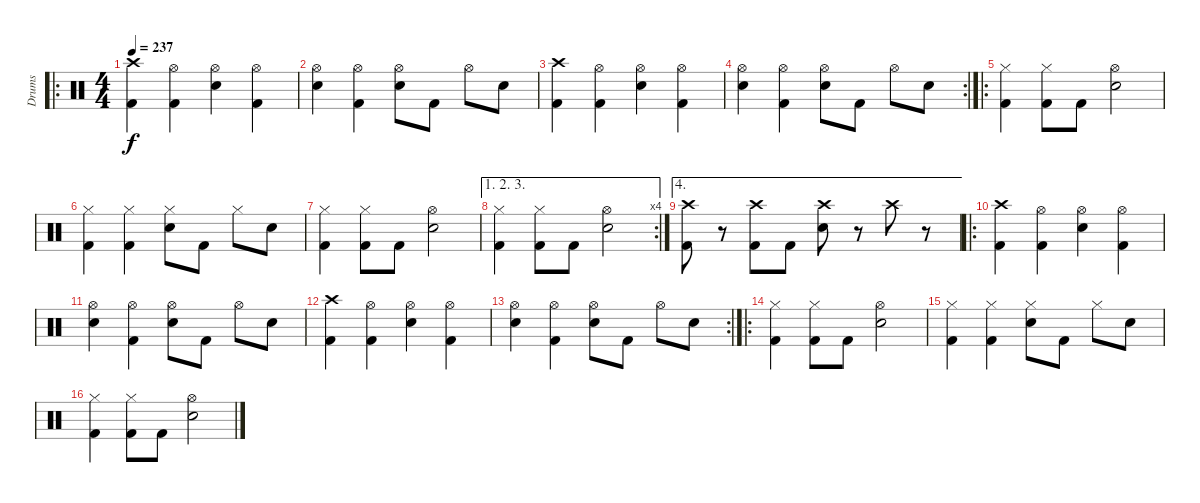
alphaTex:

\track ("Drums" "Drums") {instrument percussion}
\staff {score}
\articulation defaults
\ro
\ts (4 4)
\tempo 237
\clef neutral
\ks c
("Crash high (hit)" "Kick (hit) 2").4{dy f} ("Hi-Hat (open)" "Kick (hit) 2").4 ("Hi-Hat (open)" "Snare (hit) 2").4 ("Hi-Hat (open)" "Kick (hit) 2").4 |
("Hi-Hat (open)" "Snare (hit) 2").4 ("Hi-Hat (open)" "Kick (hit) 2").4 ("Hi-Hat (open)" "Snare (hit) 2").8 "Kick (hit) 2".8 "Hi-Hat (open)".8 "Snare (hit) 2".8 |
("Crash high (hit)" "Kick (hit) 2").4 ("Hi-Hat (open)" "Kick (hit) 2").4 ("Hi-Hat (open)" "Snare (hit) 2").4 ("Hi-Hat (open)" "Kick (hit) 2").4 |
\rc 2
("Hi-Hat (open)" "Snare (hit) 2").4 ("Hi-Hat (open)" "Kick (hit) 2").4 ("Hi-Hat (open)" "Snare (hit) 2").8 "Kick (hit) 2".8 "Hi-Hat (open)".8 "Snare (hit) 2".8 |
\ro
("Hi-Hat (closed)" "Kick (hit) 2").4 ("Hi-Hat (closed)" "Kick (hit) 2").8 "Kick (hit) 2".8 ("Hi-Hat (open)" "Snare (hit) 2").2 |
("Hi-Hat (closed)" "Kick (hit) 2").4 ("Hi-Hat (closed)" "Kick (hit) 2").4 ("Hi-Hat (closed)" "Snare (hit) 2").8 "Kick (hit) 2".8 "Hi-Hat (closed)".8 "Snare (hit) 2".8 |
("Hi-Hat (closed)" "Kick (hit) 2").4 ("Hi-Hat (closed)" "Kick (hit) 2").8 "Kick (hit) 2".8 ("Hi-Hat (open)" "Snare (hit) 2").2 |
\ae (1 2 3)
\rc 4
("Hi-Hat (closed)" "Kick (hit) 2").4 ("Hi-Hat (closed)" "Kick (hit) 2").8 "Kick (hit) 2".8 ("Hi-Hat (open)" "Snare (hit) 2").2 |
\ae 4
("Crash high (hit)" "Kick (hit) 2").8 r.8 ("Crash high (hit)" "Kick (hit) 2").8 "Kick (hit) 2".8 ("Crash high (hit)" "Snare (hit) 2").8 r.8 "Crash high (hit)".8 r.8 |
\ro
("Crash high (hit)" "Kick (hit) 2").4 ("Hi-Hat (open)" "Kick (hit) 2").4 ("Hi-Hat (open)" "Snare (hit) 2").4 ("Hi-Hat (open)" "Kick (hit) 2").4 |
("Hi-Hat (open)" "Snare (hit) 2").4 ("Hi-Hat (open)" "Kick (hit) 2").4 ("Hi-Hat (open)" "Snare (hit) 2").8 "Kick (hit) 2".8 "Hi-Hat (open)".8 "Snare (hit) 2".8 |
("Crash high (hit)" "Kick (hit) 2").4 ("Hi-Hat (open)" "Kick (hit) 2").4 ("Hi-Hat (open)" "Snare (hit) 2").4 ("Hi-Hat (open)" "Kick (hit) 2").4 |
\rc 2
("Hi-Hat (open)" "Snare (hit) 2").4 ("Hi-Hat (open)" "Kick (hit) 2").4 ("Hi-Hat (open)" "Snare (hit) 2").8 "Kick (hit) 2".8 "Hi-Hat (open)".8 "Snare (hit) 2".8 |
\ro
("Hi-Hat (closed)" "Kick (hit) 2").4 ("Hi-Hat (closed)" "Kick (hit) 2").8 "Kick (hit) 2".8 ("Hi-Hat (open)" "Snare (hit) 2").2 |
("Hi-Hat (closed)" "Kick (hit) 2").4 ("Hi-Hat (closed)" "Kick (hit) 2").4 ("Hi-Hat (closed)" "Snare (hit) 2").8 "Kick (hit) 2".8 "Hi-Hat (closed)".8 "Snare (hit) 2".8 |
("Hi-Hat (closed)" "Kick (hit) 2").4 ("Hi-Hat (closed)" "Kick (hit) 2").8 "Kick (hit) 2".8 ("Hi-Hat (open)" "Snare (hit) 2").2
